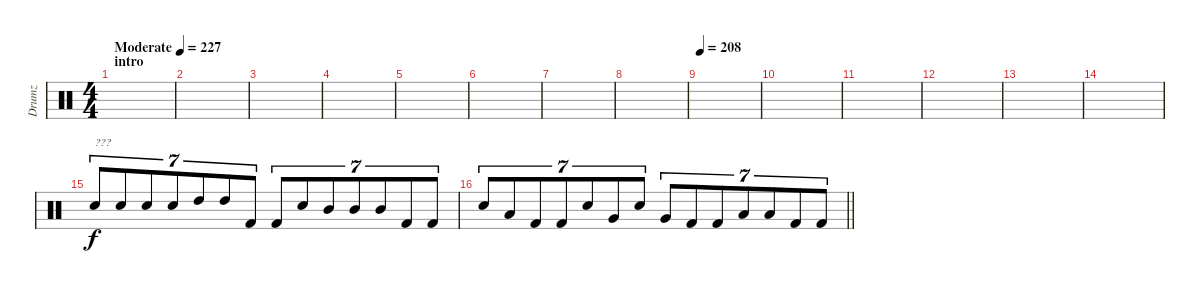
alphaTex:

\track ("Drumz" "Drumz") {instrument percussion}
\staff {score}
\articulation defaults
\ts (4 4)
\section ("" "intro")
\tempo (227 "Moderate")
\tempo 208
\tempo (227 "Moderate")
\clef neutral
\ks c
|
|
|
|
|
|
|
|
\tempo 208
|
|
|
|
|
|
"Electric Snare (hit)".8{tu (7 4) txt "???"} "Electric Snare (hit)".8{tu (7 4)} "Electric Snare (hit)".8{tu (7 4)} "Electric Snare (hit)".8{tu (7 4)} "High Tom (hit)".8{tu (7 4)} "High Tom (hit)".8{tu (7 4)} "Kick (hit) 2".8{tu (7 4)} "Kick (hit) 2".8{tu (7 4)} "Electric Snare (hit)".8{tu (7 4)} "Mid Tom (hit)".8{tu (7 4)} "Mid Tom (hit)".8{tu (7 4)} "Mid Tom (hit)".8{tu (7 4)} "Kick (hit) 2".8{tu (7 4)} "Kick (hit) 2".8{tu (7 4)} |
\barLineRight lightlight "Electric Snare (hit)".8{tu (7 4)} "Low Tom (hit)".8{tu (7 4)} "Kick (hit) 2".8{tu (7 4)} "Kick (hit) 2".8{tu (7 4)} "Electric Snare (hit)".8{tu (7 4)} "Very Low Tom (hit)".8{tu (7 4)} "Electric Snare (hit)".8{tu (7 4)} "Very Low Tom (hit)".8{tu (7 4)} "Kick (hit) 2".8{tu (7 4)} "Kick (hit) 2".8{tu (7 4)} "Low Floor Tom (hit)".8{tu (7 4)} "Low Floor Tom (hit)".8{tu (7 4)} "Kick (hit) 2".8{tu (7 4)} "Kick (hit) 2".8{tu (7 4)}
